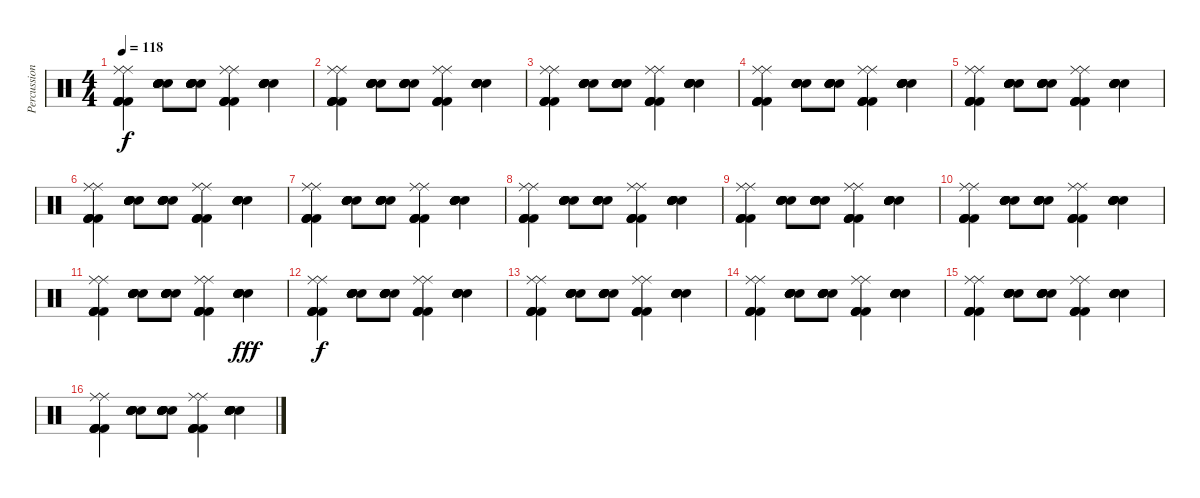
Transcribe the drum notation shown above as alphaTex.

\track ("Percussion" "Percussion") {instrument percussion}
\staff {score}
\articulation defaults
\ts (4 4)
\tempo 118
\clef neutral
\ks c
("Ride (middle)" "Kick (hit) 2" "Kick (hit) 2" "Kick (hit) 2" "Kick (hit) 2" "Ride (middle)").4{dy f} ("Electric Snare (hit)" "Electric Snare (hit)" "Electric Snare (hit)" "Electric Snare (hit)" "Electric Snare (hit)" "Electric Snare (hit)").8 ("Electric Snare (hit)" "Electric Snare (hit)" "Electric Snare (hit)" "Electric Snare (hit)" "Electric Snare (hit)" "Electric Snare (hit)").8 ("Ride (middle)" "Kick (hit) 2" "Kick (hit) 2" "Kick (hit) 2" "Kick (hit) 2" "Ride (middle)").4 ("Electric Snare (hit)" "Electric Snare (hit)" "Electric Snare (hit)" "Electric Snare (hit)" "Electric Snare (hit)" "Electric Snare (hit)").4 |
("Ride (middle)" "Kick (hit) 2" "Kick (hit) 2" "Kick (hit) 2" "Kick (hit) 2" "Ride (middle)").4 ("Electric Snare (hit)" "Electric Snare (hit)" "Electric Snare (hit)" "Electric Snare (hit)" "Electric Snare (hit)" "Electric Snare (hit)").8 ("Electric Snare (hit)" "Electric Snare (hit)" "Electric Snare (hit)" "Electric Snare (hit)" "Electric Snare (hit)" "Electric Snare (hit)").8 ("Ride (middle)" "Kick (hit) 2" "Kick (hit) 2" "Kick (hit) 2" "Kick (hit) 2" "Ride (middle)").4 ("Electric Snare (hit)" "Electric Snare (hit)" "Electric Snare (hit)" "Electric Snare (hit)" "Electric Snare (hit)" "Electric Snare (hit)").4 |
("Ride (middle)" "Kick (hit) 2" "Kick (hit) 2" "Kick (hit) 2" "Kick (hit) 2" "Ride (middle)").4 ("Electric Snare (hit)" "Electric Snare (hit)" "Electric Snare (hit)" "Electric Snare (hit)" "Electric Snare (hit)" "Electric Snare (hit)").8 ("Electric Snare (hit)" "Electric Snare (hit)" "Electric Snare (hit)" "Electric Snare (hit)" "Electric Snare (hit)" "Electric Snare (hit)").8 ("Ride (middle)" "Kick (hit) 2" "Kick (hit) 2" "Kick (hit) 2" "Kick (hit) 2" "Ride (middle)").4 ("Electric Snare (hit)" "Electric Snare (hit)" "Electric Snare (hit)" "Electric Snare (hit)" "Electric Snare (hit)" "Electric Snare (hit)").4 |
("Ride (middle)" "Kick (hit) 2" "Kick (hit) 2" "Kick (hit) 2" "Kick (hit) 2" "Ride (middle)").4 ("Electric Snare (hit)" "Electric Snare (hit)" "Electric Snare (hit)" "Electric Snare (hit)" "Electric Snare (hit)" "Electric Snare (hit)").8 ("Electric Snare (hit)" "Electric Snare (hit)" "Electric Snare (hit)" "Electric Snare (hit)" "Electric Snare (hit)" "Electric Snare (hit)").8 ("Ride (middle)" "Kick (hit) 2" "Kick (hit) 2" "Kick (hit) 2" "Kick (hit) 2" "Ride (middle)").4 ("Electric Snare (hit)" "Electric Snare (hit)" "Electric Snare (hit)" "Electric Snare (hit)" "Electric Snare (hit)" "Electric Snare (hit)").4 |
("Ride (middle)" "Kick (hit) 2" "Kick (hit) 2" "Kick (hit) 2" "Kick (hit) 2" "Ride (middle)").4 ("Electric Snare (hit)" "Electric Snare (hit)" "Electric Snare (hit)" "Electric Snare (hit)" "Electric Snare (hit)" "Electric Snare (hit)").8 ("Electric Snare (hit)" "Electric Snare (hit)" "Electric Snare (hit)" "Electric Snare (hit)" "Electric Snare (hit)" "Electric Snare (hit)").8 ("Ride (middle)" "Kick (hit) 2" "Kick (hit) 2" "Kick (hit) 2" "Kick (hit) 2" "Ride (middle)").4 ("Electric Snare (hit)" "Electric Snare (hit)" "Electric Snare (hit)" "Electric Snare (hit)" "Electric Snare (hit)" "Electric Snare (hit)").4 |
("Ride (middle)" "Kick (hit) 2" "Kick (hit) 2" "Kick (hit) 2" "Kick (hit) 2" "Ride (middle)").4 ("Electric Snare (hit)" "Electric Snare (hit)" "Electric Snare (hit)" "Electric Snare (hit)" "Electric Snare (hit)" "Electric Snare (hit)").8 ("Electric Snare (hit)" "Electric Snare (hit)" "Electric Snare (hit)" "Electric Snare (hit)" "Electric Snare (hit)" "Electric Snare (hit)").8 ("Ride (middle)" "Kick (hit) 2" "Kick (hit) 2" "Kick (hit) 2" "Kick (hit) 2" "Ride (middle)").4 ("Electric Snare (hit)" "Electric Snare (hit)" "Electric Snare (hit)" "Electric Snare (hit)" "Electric Snare (hit)" "Electric Snare (hit)").4 |
("Ride (middle)" "Kick (hit) 2" "Kick (hit) 2" "Kick (hit) 2" "Kick (hit) 2" "Ride (middle)").4 ("Electric Snare (hit)" "Electric Snare (hit)" "Electric Snare (hit)" "Electric Snare (hit)" "Electric Snare (hit)" "Electric Snare (hit)").8 ("Electric Snare (hit)" "Electric Snare (hit)" "Electric Snare (hit)" "Electric Snare (hit)" "Electric Snare (hit)" "Electric Snare (hit)").8 ("Ride (middle)" "Kick (hit) 2" "Kick (hit) 2" "Kick (hit) 2" "Kick (hit) 2" "Ride (middle)").4 ("Electric Snare (hit)" "Electric Snare (hit)" "Electric Snare (hit)" "Electric Snare (hit)" "Electric Snare (hit)" "Electric Snare (hit)").4 |
("Ride (middle)" "Kick (hit) 2" "Kick (hit) 2" "Kick (hit) 2" "Kick (hit) 2" "Ride (middle)").4 ("Electric Snare (hit)" "Electric Snare (hit)" "Electric Snare (hit)" "Electric Snare (hit)" "Electric Snare (hit)" "Electric Snare (hit)").8 ("Electric Snare (hit)" "Electric Snare (hit)" "Electric Snare (hit)" "Electric Snare (hit)" "Electric Snare (hit)" "Electric Snare (hit)").8 ("Ride (middle)" "Kick (hit) 2" "Kick (hit) 2" "Kick (hit) 2" "Kick (hit) 2" "Ride (middle)").4 ("Electric Snare (hit)" "Electric Snare (hit)" "Electric Snare (hit)" "Electric Snare (hit)" "Electric Snare (hit)" "Electric Snare (hit)").4 |
("Ride (middle)" "Kick (hit) 2" "Kick (hit) 2" "Kick (hit) 2" "Kick (hit) 2" "Ride (middle)").4 ("Electric Snare (hit)" "Electric Snare (hit)" "Electric Snare (hit)" "Electric Snare (hit)" "Electric Snare (hit)" "Electric Snare (hit)").8 ("Electric Snare (hit)" "Electric Snare (hit)" "Electric Snare (hit)" "Electric Snare (hit)" "Electric Snare (hit)" "Electric Snare (hit)").8 ("Ride (middle)" "Kick (hit) 2" "Kick (hit) 2" "Kick (hit) 2" "Kick (hit) 2" "Ride (middle)").4 ("Electric Snare (hit)" "Electric Snare (hit)" "Electric Snare (hit)" "Electric Snare (hit)" "Electric Snare (hit)" "Electric Snare (hit)").4 |
("Ride (middle)" "Kick (hit) 2" "Kick (hit) 2" "Kick (hit) 2" "Kick (hit) 2" "Ride (middle)").4 ("Electric Snare (hit)" "Electric Snare (hit)" "Electric Snare (hit)" "Electric Snare (hit)" "Electric Snare (hit)" "Electric Snare (hit)").8 ("Electric Snare (hit)" "Electric Snare (hit)" "Electric Snare (hit)" "Electric Snare (hit)" "Electric Snare (hit)" "Electric Snare (hit)").8 ("Ride (middle)" "Kick (hit) 2" "Kick (hit) 2" "Kick (hit) 2" "Kick (hit) 2" "Ride (middle)").4 ("Electric Snare (hit)" "Electric Snare (hit)" "Electric Snare (hit)" "Electric Snare (hit)" "Electric Snare (hit)" "Electric Snare (hit)").4 |
("Ride (middle)" "Kick (hit) 2" "Kick (hit) 2" "Kick (hit) 2" "Kick (hit) 2" "Ride (middle)").4 ("Electric Snare (hit)" "Electric Snare (hit)" "Electric Snare (hit)" "Electric Snare (hit)" "Electric Snare (hit)" "Electric Snare (hit)").8 ("Electric Snare (hit)" "Electric Snare (hit)" "Electric Snare (hit)" "Electric Snare (hit)" "Electric Snare (hit)" "Electric Snare (hit)").8 ("Ride (middle)" "Kick (hit) 2" "Kick (hit) 2" "Kick (hit) 2" "Kick (hit) 2" "Ride (middle)").4 ("Snare (hit) 2" "Snare (hit) 2" "Snare (hit) 2" "Snare (hit) 2" "Snare (hit) 2" "Snare (hit) 2").4{dy fff} |
("Ride (middle)" "Kick (hit) 2" "Kick (hit) 2" "Kick (hit) 2" "Kick (hit) 2" "Ride (middle)").4{dy f} ("Electric Snare (hit)" "Electric Snare (hit)" "Electric Snare (hit)" "Electric Snare (hit)" "Electric Snare (hit)" "Electric Snare (hit)").8 ("Electric Snare (hit)" "Electric Snare (hit)" "Electric Snare (hit)" "Electric Snare (hit)" "Electric Snare (hit)" "Electric Snare (hit)").8 ("Ride (middle)" "Kick (hit) 2" "Kick (hit) 2" "Kick (hit) 2" "Kick (hit) 2" "Ride (middle)").4 ("Electric Snare (hit)" "Electric Snare (hit)" "Electric Snare (hit)" "Electric Snare (hit)" "Electric Snare (hit)" "Electric Snare (hit)").4 |
("Ride (middle)" "Kick (hit) 2" "Kick (hit) 2" "Kick (hit) 2" "Kick (hit) 2" "Ride (middle)").4 ("Electric Snare (hit)" "Electric Snare (hit)" "Electric Snare (hit)" "Electric Snare (hit)" "Electric Snare (hit)" "Electric Snare (hit)").8 ("Electric Snare (hit)" "Electric Snare (hit)" "Electric Snare (hit)" "Electric Snare (hit)" "Electric Snare (hit)" "Electric Snare (hit)").8 ("Ride (middle)" "Kick (hit) 2" "Kick (hit) 2" "Kick (hit) 2" "Kick (hit) 2" "Ride (middle)").4 ("Electric Snare (hit)" "Electric Snare (hit)" "Electric Snare (hit)" "Electric Snare (hit)" "Electric Snare (hit)" "Electric Snare (hit)").4 |
("Ride (middle)" "Kick (hit) 2" "Kick (hit) 2" "Kick (hit) 2" "Kick (hit) 2" "Ride (middle)").4 ("Electric Snare (hit)" "Electric Snare (hit)" "Electric Snare (hit)" "Electric Snare (hit)" "Electric Snare (hit)" "Electric Snare (hit)").8 ("Electric Snare (hit)" "Electric Snare (hit)" "Electric Snare (hit)" "Electric Snare (hit)" "Electric Snare (hit)" "Electric Snare (hit)").8 ("Ride (middle)" "Kick (hit) 2" "Kick (hit) 2" "Kick (hit) 2" "Kick (hit) 2" "Ride (middle)").4 ("Electric Snare (hit)" "Electric Snare (hit)" "Electric Snare (hit)" "Electric Snare (hit)" "Electric Snare (hit)" "Electric Snare (hit)").4 |
("Ride (middle)" "Kick (hit) 2" "Kick (hit) 2" "Kick (hit) 2" "Kick (hit) 2" "Ride (middle)").4 ("Electric Snare (hit)" "Electric Snare (hit)" "Electric Snare (hit)" "Electric Snare (hit)" "Electric Snare (hit)" "Electric Snare (hit)").8 ("Electric Snare (hit)" "Electric Snare (hit)" "Electric Snare (hit)" "Electric Snare (hit)" "Electric Snare (hit)" "Electric Snare (hit)").8 ("Ride (middle)" "Kick (hit) 2" "Kick (hit) 2" "Kick (hit) 2" "Kick (hit) 2" "Ride (middle)").4 ("Electric Snare (hit)" "Electric Snare (hit)" "Electric Snare (hit)" "Electric Snare (hit)" "Electric Snare (hit)" "Electric Snare (hit)").4 |
("Ride (middle)" "Kick (hit) 2" "Kick (hit) 2" "Kick (hit) 2" "Kick (hit) 2" "Ride (middle)").4 ("Electric Snare (hit)" "Electric Snare (hit)" "Electric Snare (hit)" "Electric Snare (hit)" "Electric Snare (hit)" "Electric Snare (hit)").8 ("Electric Snare (hit)" "Electric Snare (hit)" "Electric Snare (hit)" "Electric Snare (hit)" "Electric Snare (hit)" "Electric Snare (hit)").8 ("Ride (middle)" "Kick (hit) 2" "Kick (hit) 2" "Kick (hit) 2" "Kick (hit) 2" "Ride (middle)").4 ("Electric Snare (hit)" "Electric Snare (hit)" "Electric Snare (hit)" "Electric Snare (hit)" "Electric Snare (hit)" "Electric Snare (hit)").4
